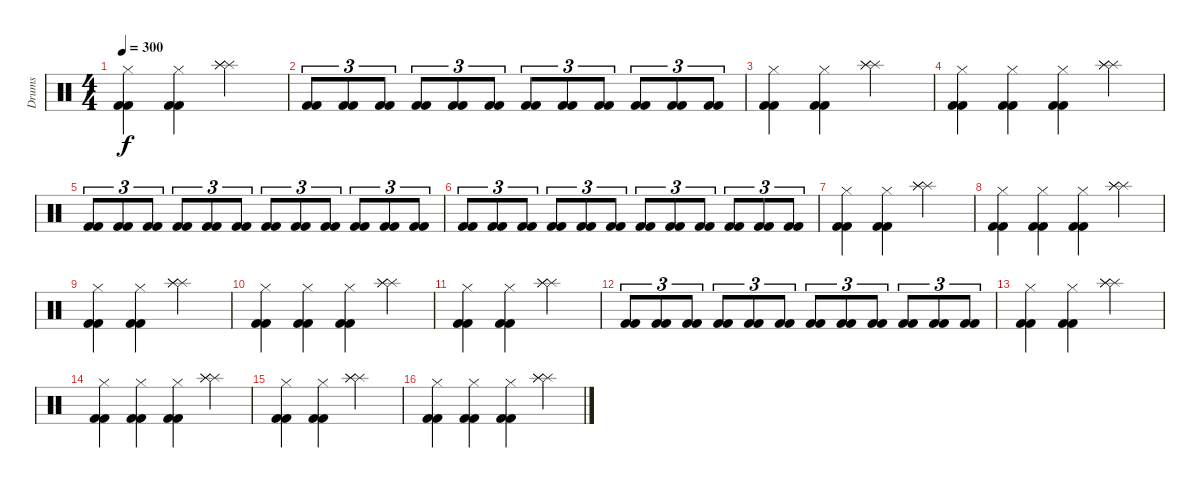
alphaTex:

\track ("Drums" "Drums") {instrument percussion}
\staff {score}
\articulation defaults
\ts (4 4)
\tempo 300
\clef neutral
\ks c
("Hi-Hat (closed)" "Kick (hit) 2" "Kick (hit) 2").4{dy f} ("Hi-Hat (closed)" "Kick (hit) 2" "Kick (hit) 2").4 ("Splash (hit)" "Splash (hit)" "Splash (hit)").2 |
("Kick (hit) 2" "Kick (hit) 2").8{tu (3 2)} ("Kick (hit) 2" "Kick (hit) 2").8{tu (3 2)} ("Kick (hit) 2" "Kick (hit) 2").8{tu (3 2)} ("Kick (hit) 2" "Kick (hit) 2").8{tu (3 2)} ("Kick (hit) 2" "Kick (hit) 2").8{tu (3 2)} ("Kick (hit) 2" "Kick (hit) 2").8{tu (3 2)} ("Kick (hit) 2" "Kick (hit) 2").8{tu (3 2)} ("Kick (hit) 2" "Kick (hit) 2").8{tu (3 2)} ("Kick (hit) 2" "Kick (hit) 2").8{tu (3 2)} ("Kick (hit) 2" "Kick (hit) 2").8{tu (3 2)} ("Kick (hit) 2" "Kick (hit) 2").8{tu (3 2)} ("Kick (hit) 2" "Kick (hit) 2").8{tu (3 2)} |
("Hi-Hat (closed)" "Kick (hit) 2" "Kick (hit) 2").4 ("Hi-Hat (closed)" "Kick (hit) 2" "Kick (hit) 2").4 ("Splash (hit)" "Splash (hit)" "Splash (hit)").2 |
("Hi-Hat (closed)" "Kick (hit) 2" "Kick (hit) 2").4 ("Hi-Hat (closed)" "Kick (hit) 2" "Kick (hit) 2").4 ("Hi-Hat (closed)" "Kick (hit) 2" "Kick (hit) 2").4 ("Splash (hit)" "Splash (hit)" "Splash (hit)").4 |
("Kick (hit) 2" "Kick (hit) 2").8{tu (3 2)} ("Kick (hit) 2" "Kick (hit) 2").8{tu (3 2)} ("Kick (hit) 2" "Kick (hit) 2").8{tu (3 2)} ("Kick (hit) 2" "Kick (hit) 2").8{tu (3 2)} ("Kick (hit) 2" "Kick (hit) 2").8{tu (3 2)} ("Kick (hit) 2" "Kick (hit) 2").8{tu (3 2)} ("Kick (hit) 2" "Kick (hit) 2").8{tu (3 2)} ("Kick (hit) 2" "Kick (hit) 2").8{tu (3 2)} ("Kick (hit) 2" "Kick (hit) 2").8{tu (3 2)} ("Kick (hit) 2" "Kick (hit) 2").8{tu (3 2)} ("Kick (hit) 2" "Kick (hit) 2").8{tu (3 2)} ("Kick (hit) 2" "Kick (hit) 2").8{tu (3 2)} |
("Kick (hit) 2" "Kick (hit) 2").8{tu (3 2)} ("Kick (hit) 2" "Kick (hit) 2").8{tu (3 2)} ("Kick (hit) 2" "Kick (hit) 2").8{tu (3 2)} ("Kick (hit) 2" "Kick (hit) 2").8{tu (3 2)} ("Kick (hit) 2" "Kick (hit) 2").8{tu (3 2)} ("Kick (hit) 2" "Kick (hit) 2").8{tu (3 2)} ("Kick (hit) 2" "Kick (hit) 2").8{tu (3 2)} ("Kick (hit) 2" "Kick (hit) 2").8{tu (3 2)} ("Kick (hit) 2" "Kick (hit) 2").8{tu (3 2)} ("Kick (hit) 2" "Kick (hit) 2").8{tu (3 2)} ("Kick (hit) 2" "Kick (hit) 2").8{tu (3 2)} ("Kick (hit) 2" "Kick (hit) 2").8{tu (3 2)} |
("Hi-Hat (closed)" "Kick (hit) 2" "Kick (hit) 2").4 ("Hi-Hat (closed)" "Kick (hit) 2" "Kick (hit) 2").4 ("Splash (hit)" "Splash (hit)" "Splash (hit)").2 |
("Hi-Hat (closed)" "Kick (hit) 2" "Kick (hit) 2").4 ("Hi-Hat (closed)" "Kick (hit) 2" "Kick (hit) 2").4 ("Hi-Hat (closed)" "Kick (hit) 2" "Kick (hit) 2").4 ("Splash (hit)" "Splash (hit)" "Splash (hit)").4 |
("Hi-Hat (closed)" "Kick (hit) 2" "Kick (hit) 2").4 ("Hi-Hat (closed)" "Kick (hit) 2" "Kick (hit) 2").4 ("Splash (hit)" "Splash (hit)" "Splash (hit)").2 |
("Hi-Hat (closed)" "Kick (hit) 2" "Kick (hit) 2").4 ("Hi-Hat (closed)" "Kick (hit) 2" "Kick (hit) 2").4 ("Hi-Hat (closed)" "Kick (hit) 2" "Kick (hit) 2").4 ("Splash (hit)" "Splash (hit)" "Splash (hit)").4 |
("Hi-Hat (closed)" "Kick (hit) 2" "Kick (hit) 2").4 ("Hi-Hat (closed)" "Kick (hit) 2" "Kick (hit) 2").4 ("Splash (hit)" "Splash (hit)" "Splash (hit)").2 |
("Kick (hit) 2" "Kick (hit) 2").8{tu (3 2)} ("Kick (hit) 2" "Kick (hit) 2").8{tu (3 2)} ("Kick (hit) 2" "Kick (hit) 2").8{tu (3 2)} ("Kick (hit) 2" "Kick (hit) 2").8{tu (3 2)} ("Kick (hit) 2" "Kick (hit) 2").8{tu (3 2)} ("Kick (hit) 2" "Kick (hit) 2").8{tu (3 2)} ("Kick (hit) 2" "Kick (hit) 2").8{tu (3 2)} ("Kick (hit) 2" "Kick (hit) 2").8{tu (3 2)} ("Kick (hit) 2" "Kick (hit) 2").8{tu (3 2)} ("Kick (hit) 2" "Kick (hit) 2").8{tu (3 2)} ("Kick (hit) 2" "Kick (hit) 2").8{tu (3 2)} ("Kick (hit) 2" "Kick (hit) 2").8{tu (3 2)} |
("Hi-Hat (closed)" "Kick (hit) 2" "Kick (hit) 2").4 ("Hi-Hat (closed)" "Kick (hit) 2" "Kick (hit) 2").4 ("Splash (hit)" "Splash (hit)" "Splash (hit)").2 |
("Hi-Hat (closed)" "Kick (hit) 2" "Kick (hit) 2").4 ("Hi-Hat (closed)" "Kick (hit) 2" "Kick (hit) 2").4 ("Hi-Hat (closed)" "Kick (hit) 2" "Kick (hit) 2").4 ("Splash (hit)" "Splash (hit)" "Splash (hit)").4 |
("Hi-Hat (closed)" "Kick (hit) 2" "Kick (hit) 2").4 ("Hi-Hat (closed)" "Kick (hit) 2" "Kick (hit) 2").4 ("Splash (hit)" "Splash (hit)" "Splash (hit)").2 |
("Hi-Hat (closed)" "Kick (hit) 2" "Kick (hit) 2").4 ("Hi-Hat (closed)" "Kick (hit) 2" "Kick (hit) 2").4 ("Hi-Hat (closed)" "Kick (hit) 2" "Kick (hit) 2").4 ("Splash (hit)" "Splash (hit)" "Splash (hit)").4
